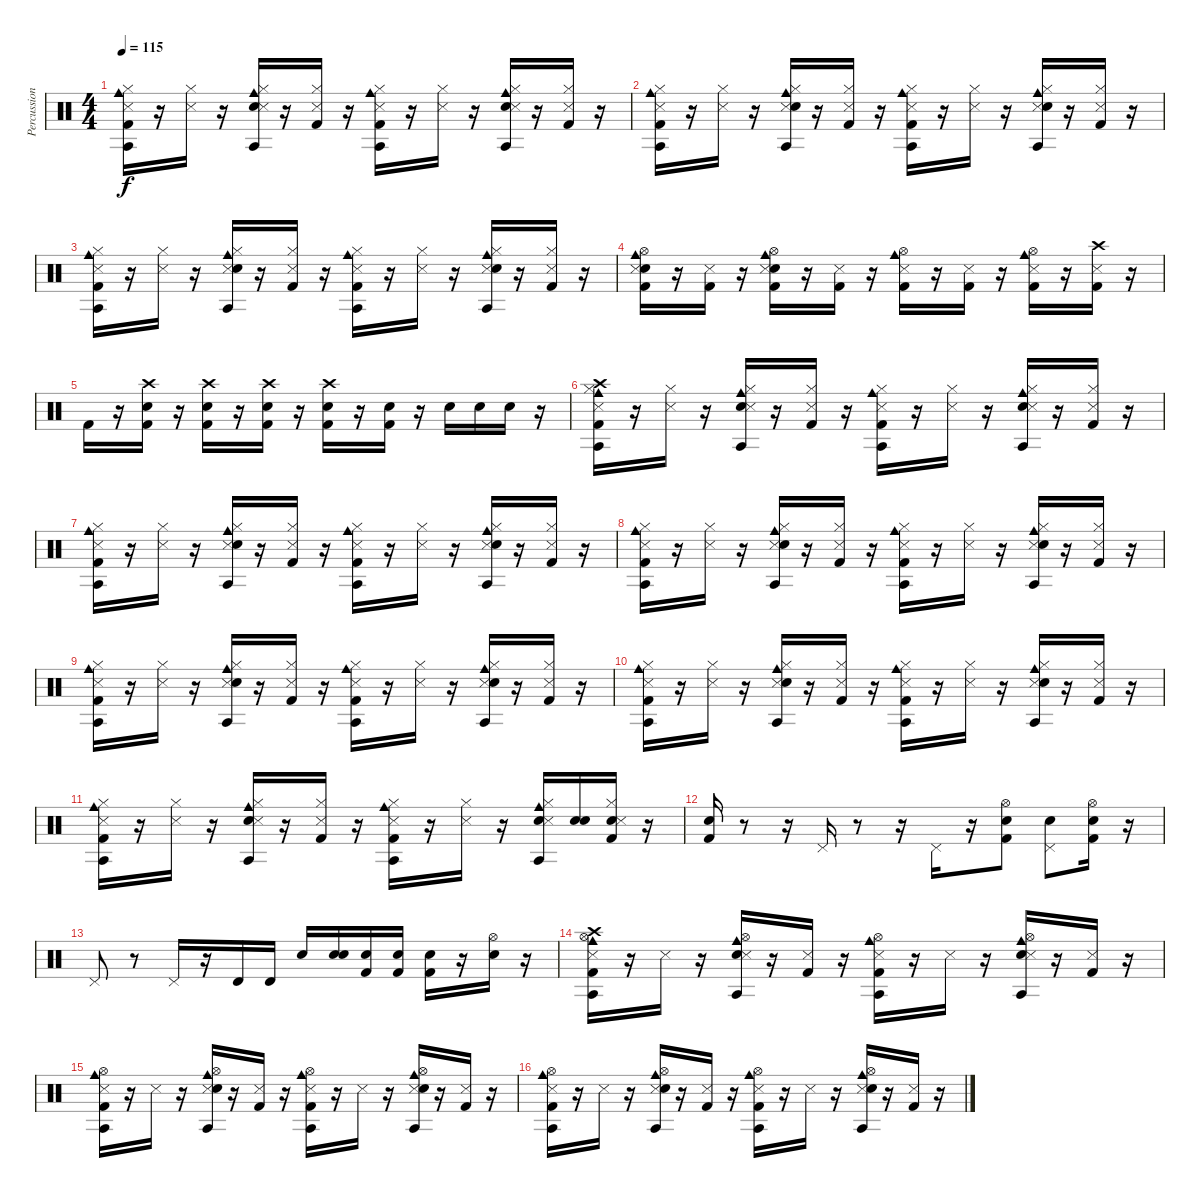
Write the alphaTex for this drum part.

\track ("Percussion" "Percussion") {instrument percussion}
\staff {score}
\articulation defaults
\ts (4 4)
\tempo 115
\clef neutral
\ks c
("Kick (hit) 2" "Agogo tow (hit)" "Cowbell medium (hit)" "Snare (side stick) 3" "Hi-Hat (closed)").16{dy f} r.16 ("Snare (side stick) 3" "Hi-Hat (closed)").16 r.16 ("Snare (hit) 2" "Agogo tow (hit)" "Cowbell medium (hit)" "Snare (side stick) 3" "Hi-Hat (closed)").16 r.16 ("Kick (hit) 2" "Snare (side stick) 3" "Hi-Hat (closed)").16 r.16 ("Kick (hit) 2" "Agogo tow (hit)" "Cowbell medium (hit)" "Snare (side stick) 3" "Hi-Hat (closed)").16 r.16 ("Snare (side stick) 3" "Hi-Hat (closed)").16 r.16 ("Snare (hit) 2" "Agogo tow (hit)" "Cowbell medium (hit)" "Snare (side stick) 3" "Hi-Hat (closed)").16 r.16 ("Kick (hit) 2" "Snare (side stick) 3" "Hi-Hat (closed)").16 r.16 |
("Agogo tow (hit)" "Snare (side stick) 3" "Cowbell medium (hit)" "Hi-Hat (closed)" "Kick (hit) 2").16 r.16 ("Snare (side stick) 3" "Hi-Hat (closed)").16 r.16 ("Agogo tow (hit)" "Snare (side stick) 3" "Cowbell medium (hit)" "Hi-Hat (closed)" "Snare (hit) 2").16 r.16 ("Snare (side stick) 3" "Hi-Hat (closed)" "Kick (hit) 2").16 r.16 ("Agogo tow (hit)" "Snare (side stick) 3" "Cowbell medium (hit)" "Hi-Hat (closed)" "Kick (hit) 2").16 r.16 ("Snare (side stick) 3" "Hi-Hat (closed)").16 r.16 ("Agogo tow (hit)" "Snare (side stick) 3" "Cowbell medium (hit)" "Hi-Hat (closed)" "Snare (hit) 2").16 r.16 ("Snare (side stick) 3" "Hi-Hat (closed)" "Kick (hit) 2").16 r.16 |
("Cowbell medium (hit)" "Snare (side stick) 3" "Agogo tow (hit)" "Kick (hit) 2" "Hi-Hat (closed)").16 r.16 ("Snare (side stick) 3" "Hi-Hat (closed)").16 r.16 ("Cowbell medium (hit)" "Snare (side stick) 3" "Agogo tow (hit)" "Snare (hit) 2" "Hi-Hat (closed)").16 r.16 ("Snare (side stick) 3" "Kick (hit) 2" "Hi-Hat (closed)").16 r.16 ("Cowbell medium (hit)" "Snare (side stick) 3" "Agogo tow (hit)" "Kick (hit) 2" "Hi-Hat (closed)").16 r.16 ("Snare (side stick) 3" "Hi-Hat (closed)").16 r.16 ("Cowbell medium (hit)" "Snare (side stick) 3" "Agogo tow (hit)" "Snare (hit) 2" "Hi-Hat (closed)").16 r.16 ("Snare (side stick) 3" "Kick (hit) 2" "Hi-Hat (closed)").16 r.16 |
("Electric Snare (hit)" "Snare (side stick) 3" "Cowbell medium (hit)" "Hi-Hat (open)" "Kick (hit) 2").16 r.16 ("Snare (side stick) 3" "Kick (hit) 2").16 r.16 ("Electric Snare (hit)" "Snare (side stick) 3" "Cowbell medium (hit)" "Hi-Hat (open)" "Kick (hit) 2").16 r.16 ("Snare (side stick) 3" "Kick (hit) 2").16 r.16 ("Snare (side stick) 3" "Cowbell medium (hit)" "Hi-Hat (open)" "Kick (hit) 2").16 r.16 ("Snare (side stick) 3" "Kick (hit) 2").16 r.16 ("Snare (side stick) 3" "Cowbell medium (hit)" "Hi-Hat (open)" "Kick (hit) 2").16 r.16 ("Crash high (hit)" "Snare (side stick) 3" "Kick (hit) 2").16 r.16 |
"Kick (hit) 2".16 r.16 ("Crash high (hit)" "Snare (hit) 2" "Kick (hit) 2").16 r.16 ("Snare (hit) 2" "Crash high (hit)" "Kick (hit) 2").16 r.16 ("Snare (hit) 2" "Kick (hit) 2" "Crash high (hit)").16 r.16 ("Snare (hit) 2" "Crash high (hit)" "Kick (hit) 2").16 r.16 ("Snare (hit) 2" "Kick (hit) 2").16 r.16 "Snare (hit) 2".16 "Snare (hit) 2".16 "Snare (hit) 2".16 r.16 |
("Kick (hit) 2" "Hi-Hat (closed)" "Agogo tow (hit)" "Crash high (hit)" "Cowbell medium (hit)" "Snare (side stick) 3").16 r.16 ("Hi-Hat (closed)" "Snare (side stick) 3").16 r.16 ("Snare (hit) 2" "Hi-Hat (closed)" "Agogo tow (hit)" "Cowbell medium (hit)" "Snare (side stick) 3").16 r.16 ("Kick (hit) 2" "Hi-Hat (closed)" "Snare (side stick) 3").16 r.16 ("Kick (hit) 2" "Hi-Hat (closed)" "Agogo tow (hit)" "Cowbell medium (hit)" "Snare (side stick) 3").16 r.16 ("Hi-Hat (closed)" "Snare (side stick) 3").16 r.16 ("Snare (hit) 2" "Hi-Hat (closed)" "Agogo tow (hit)" "Cowbell medium (hit)" "Snare (side stick) 3").16 r.16 ("Kick (hit) 2" "Hi-Hat (closed)" "Snare (side stick) 3").16 r.16 |
("Cowbell medium (hit)" "Snare (side stick) 3" "Hi-Hat (closed)" "Agogo tow (hit)" "Kick (hit) 2").16 r.16 ("Snare (side stick) 3" "Hi-Hat (closed)").16 r.16 ("Cowbell medium (hit)" "Snare (side stick) 3" "Hi-Hat (closed)" "Agogo tow (hit)" "Snare (hit) 2").16 r.16 ("Snare (side stick) 3" "Hi-Hat (closed)" "Kick (hit) 2").16 r.16 ("Cowbell medium (hit)" "Snare (side stick) 3" "Hi-Hat (closed)" "Agogo tow (hit)" "Kick (hit) 2").16 r.16 ("Snare (side stick) 3" "Hi-Hat (closed)").16 r.16 ("Cowbell medium (hit)" "Snare (side stick) 3" "Hi-Hat (closed)" "Agogo tow (hit)" "Snare (hit) 2").16 r.16 ("Snare (side stick) 3" "Hi-Hat (closed)" "Kick (hit) 2").16 r.16 |
("Snare (side stick) 3" "Agogo tow (hit)" "Kick (hit) 2" "Cowbell medium (hit)" "Hi-Hat (closed)").16 r.16 ("Snare (side stick) 3" "Hi-Hat (closed)").16 r.16 ("Snare (side stick) 3" "Agogo tow (hit)" "Snare (hit) 2" "Cowbell medium (hit)" "Hi-Hat (closed)").16 r.16 ("Snare (side stick) 3" "Kick (hit) 2" "Hi-Hat (closed)").16 r.16 ("Snare (side stick) 3" "Agogo tow (hit)" "Kick (hit) 2" "Cowbell medium (hit)" "Hi-Hat (closed)").16 r.16 ("Snare (side stick) 3" "Hi-Hat (closed)").16 r.16 ("Snare (side stick) 3" "Agogo tow (hit)" "Snare (hit) 2" "Cowbell medium (hit)" "Hi-Hat (closed)").16 r.16 ("Snare (side stick) 3" "Kick (hit) 2" "Hi-Hat (closed)").16 r.16 |
("Cowbell medium (hit)" "Agogo tow (hit)" "Snare (side stick) 3" "Kick (hit) 2" "Hi-Hat (closed)").16 r.16 ("Snare (side stick) 3" "Hi-Hat (closed)").16 r.16 ("Cowbell medium (hit)" "Agogo tow (hit)" "Snare (side stick) 3" "Snare (hit) 2" "Hi-Hat (closed)").16 r.16 ("Snare (side stick) 3" "Kick (hit) 2" "Hi-Hat (closed)").16 r.16 ("Cowbell medium (hit)" "Agogo tow (hit)" "Snare (side stick) 3" "Kick (hit) 2" "Hi-Hat (closed)").16 r.16 ("Snare (side stick) 3" "Hi-Hat (closed)").16 r.16 ("Cowbell medium (hit)" "Agogo tow (hit)" "Snare (side stick) 3" "Snare (hit) 2" "Hi-Hat (closed)").16 r.16 ("Snare (side stick) 3" "Kick (hit) 2" "Hi-Hat (closed)").16 r.16 |
("Hi-Hat (closed)" "Cowbell medium (hit)" "Snare (side stick) 3" "Agogo tow (hit)" "Kick (hit) 2").16 r.16 ("Hi-Hat (closed)" "Snare (side stick) 3").16 r.16 ("Hi-Hat (closed)" "Cowbell medium (hit)" "Snare (side stick) 3" "Agogo tow (hit)" "Snare (hit) 2").16 r.16 ("Hi-Hat (closed)" "Snare (side stick) 3" "Kick (hit) 2").16 r.16 ("Hi-Hat (closed)" "Cowbell medium (hit)" "Snare (side stick) 3" "Agogo tow (hit)" "Kick (hit) 2").16 r.16 ("Hi-Hat (closed)" "Snare (side stick) 3").16 r.16 ("Hi-Hat (closed)" "Cowbell medium (hit)" "Snare (side stick) 3" "Agogo tow (hit)" "Snare (hit) 2").16 r.16 ("Hi-Hat (closed)" "Snare (side stick) 3" "Kick (hit) 2").16 r.16 |
("Kick (hit) 2" "Agogo tow (hit)" "Cowbell medium (hit)" "Snare (side stick) 3" "Hi-Hat (closed)").16 r.16 ("Snare (side stick) 3" "Hi-Hat (closed)").16 r.16 ("Snare (hit) 2" "Agogo tow (hit)" "Cowbell medium (hit)" "Snare (side stick) 3" "Hi-Hat (closed)").16 r.16 ("Kick (hit) 2" "Snare (side stick) 3" "Hi-Hat (closed)").16 r.16 ("Kick (hit) 2" "Agogo tow (hit)" "Cowbell medium (hit)" "Snare (side stick) 3" "Hi-Hat (closed)").16 r.16 ("Snare (side stick) 3" "Hi-Hat (closed)").16 r.16 ("Snare (hit) 2" "Agogo tow (hit)" "Cowbell medium (hit)" "Snare (side stick) 3" "Hi-Hat (closed)").16 ("Snare (hit)" "Snare (hit) 2").16 ("Snare (hit) 2" "Kick (hit) 2" "Snare (side stick) 3" "Hi-Hat (closed)").16 r.16 |
("Kick (hit) 2" "Snare (hit) 2").16 r.8 r.16 "Pedal Hi-Hat (hit)".16 r.8 r.16 "Pedal Hi-Hat (hit)".16 r.16 ("Snare (hit) 2" "Kick (hit) 2" "Hi-Hat (open)").8 ("Snare (hit)" "Pedal Hi-Hat (hit)").8 ("Kick (hit) 2" "Snare (hit) 2" "Hi-Hat (open)").16 r.16 |
"Pedal Hi-Hat (hit)".8 r.8 "Pedal Hi-Hat (hit)".16 r.16 "Timbale high (hit)".16 "Timbale high (hit)".16 "Snare (hit) 2".16 ("Snare (hit)" "Electric Snare (hit)").16 ("Snare (hit)" "Kick (hit) 2").16 ("Snare (hit)" "Kick (hit) 2").16 ("Snare (hit)" "Kick (hit) 2").16 r.16 ("Hi-Hat (open)" "Snare (hit) 2").16 r.16 |
("Hi-Hat (open)" "Kick (hit) 2" "Agogo tow (hit)" "Crash high (hit)" "Cowbell medium (hit)" "Snare (side stick) 3").16 r.16 "Snare (side stick) 3".16 r.16 ("Hi-Hat (open)" "Snare (hit) 2" "Agogo tow (hit)" "Cowbell medium (hit)" "Snare (side stick) 3").16 r.16 ("Kick (hit) 2" "Snare (side stick) 3").16 r.16 ("Hi-Hat (open)" "Kick (hit) 2" "Agogo tow (hit)" "Cowbell medium (hit)" "Snare (side stick) 3").16 r.16 "Snare (side stick) 3".16 r.16 ("Hi-Hat (open)" "Snare (hit) 2" "Agogo tow (hit)" "Cowbell medium (hit)" "Snare (side stick) 3").16 r.16 ("Kick (hit) 2" "Snare (side stick) 3").16 r.16 |
("Hi-Hat (open)" "Cowbell medium (hit)" "Snare (side stick) 3" "Agogo tow (hit)" "Kick (hit) 2").16 r.16 "Snare (side stick) 3".16 r.16 ("Hi-Hat (open)" "Cowbell medium (hit)" "Snare (side stick) 3" "Agogo tow (hit)" "Snare (hit) 2").16 r.16 ("Snare (side stick) 3" "Kick (hit) 2").16 r.16 ("Hi-Hat (open)" "Cowbell medium (hit)" "Snare (side stick) 3" "Agogo tow (hit)" "Kick (hit) 2").16 r.16 "Snare (side stick) 3".16 r.16 ("Hi-Hat (open)" "Cowbell medium (hit)" "Snare (side stick) 3" "Agogo tow (hit)" "Snare (hit) 2").16 r.16 ("Snare (side stick) 3" "Kick (hit) 2").16 r.16 |
("Hi-Hat (open)" "Snare (side stick) 3" "Agogo tow (hit)" "Kick (hit) 2" "Cowbell medium (hit)").16 r.16 "Snare (side stick) 3".16 r.16 ("Hi-Hat (open)" "Snare (side stick) 3" "Agogo tow (hit)" "Snare (hit) 2" "Cowbell medium (hit)").16 r.16 ("Snare (side stick) 3" "Kick (hit) 2").16 r.16 ("Hi-Hat (open)" "Snare (side stick) 3" "Agogo tow (hit)" "Kick (hit) 2" "Cowbell medium (hit)").16 r.16 "Snare (side stick) 3".16 r.16 ("Hi-Hat (open)" "Snare (side stick) 3" "Agogo tow (hit)" "Snare (hit) 2" "Cowbell medium (hit)").16 r.16 ("Snare (side stick) 3" "Kick (hit) 2").16 r.16
